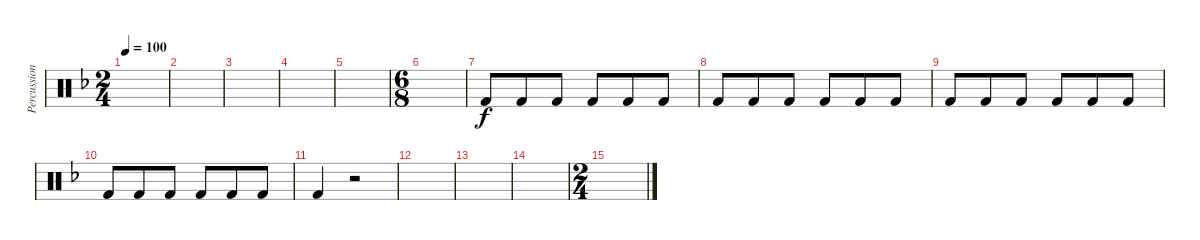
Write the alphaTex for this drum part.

\track ("Percussion" "Percussion") {instrument percussion}
\staff {score}
\articulation defaults
\ts (2 4)
\tempo 100
\clef neutral
\ks dminor
|
|
|
|
|
\ts (6 8)
|
"Kick (hit) 2".8 "Kick (hit) 2".8 "Kick (hit) 2".8 "Kick (hit) 2".8 "Kick (hit) 2".8 "Kick (hit) 2".8 |
"Kick (hit) 2".8 "Kick (hit) 2".8 "Kick (hit) 2".8 "Kick (hit) 2".8 "Kick (hit) 2".8 "Kick (hit) 2".8 |
"Kick (hit) 2".8 "Kick (hit) 2".8 "Kick (hit) 2".8 "Kick (hit) 2".8 "Kick (hit) 2".8 "Kick (hit) 2".8 |
"Kick (hit) 2".8 "Kick (hit) 2".8 "Kick (hit) 2".8 "Kick (hit) 2".8 "Kick (hit) 2".8 "Kick (hit) 2".8 |
"Kick (hit) 2".4 r.2 |
|
|
|
\ts (2 4)
